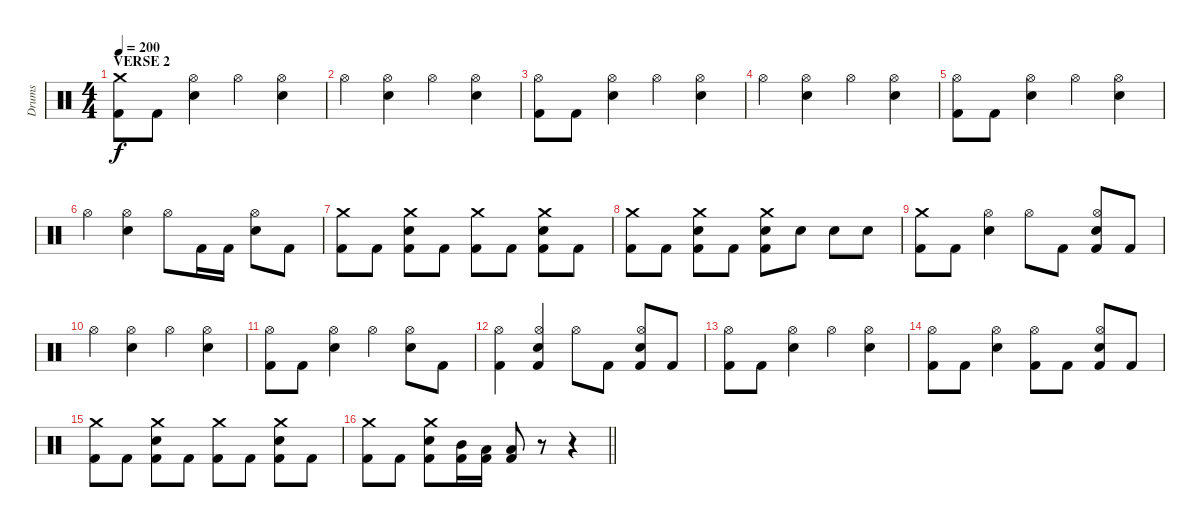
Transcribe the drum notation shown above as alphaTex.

\track ("Drums" "Drums") {instrument percussion}
\staff {score}
\articulation defaults
\ts (4 4)
\section ("" "VERSE 2")
\tempo 200
\clef neutral
\ks c
("Crash medium (hit)" "Kick (hit) 2").8{dy f} "Kick (hit) 2".8 ("Hi-Hat (open)" "Electric Snare (hit)").4 "Hi-Hat (open)".4 ("Hi-Hat (open)" "Electric Snare (hit)").4 |
"Hi-Hat (open)".4 ("Hi-Hat (open)" "Electric Snare (hit)").4 "Hi-Hat (open)".4 ("Hi-Hat (open)" "Electric Snare (hit)").4 |
("Hi-Hat (open)" "Kick (hit) 2").8 "Kick (hit) 2".8 ("Hi-Hat (open)" "Electric Snare (hit)").4 "Hi-Hat (open)".4 ("Hi-Hat (open)" "Electric Snare (hit)").4 |
"Hi-Hat (open)".4 ("Hi-Hat (open)" "Electric Snare (hit)").4 "Hi-Hat (open)".4 ("Hi-Hat (open)" "Electric Snare (hit)").4 |
("Hi-Hat (open)" "Kick (hit) 2").8 "Kick (hit) 2".8 ("Hi-Hat (open)" "Electric Snare (hit)").4 "Hi-Hat (open)".4 ("Hi-Hat (open)" "Electric Snare (hit)").4 |
"Hi-Hat (open)".4 ("Hi-Hat (open)" "Electric Snare (hit)").4 "Hi-Hat (open)".8 "Kick (hit) 2".16 "Kick (hit) 2".16 ("Hi-Hat (open)" "Electric Snare (hit)").8 "Kick (hit) 2".8 |
("Crash medium (hit)" "Kick (hit) 2").8 "Kick (hit) 2".8 ("Crash medium (hit)" "Electric Snare (hit)" "Kick (hit) 2").8 "Kick (hit) 2".8 ("Crash medium (hit)" "Kick (hit) 2").8 "Kick (hit) 2".8 ("Crash medium (hit)" "Electric Snare (hit)" "Kick (hit) 2").8 "Kick (hit) 2".8 |
("Crash medium (hit)" "Kick (hit) 2").8 "Kick (hit) 2".8 ("Crash medium (hit)" "Electric Snare (hit)" "Kick (hit) 2").8 "Kick (hit) 2".8 ("Crash medium (hit)" "Electric Snare (hit)" "Kick (hit) 2").8 "Electric Snare (hit)".8 "Electric Snare (hit)".8 "Electric Snare (hit)".8 |
("Crash medium (hit)" "Kick (hit) 2").8 "Kick (hit) 2".8 ("Hi-Hat (open)" "Electric Snare (hit)").4 "Hi-Hat (open)".8 "Kick (hit) 2".8 ("Hi-Hat (open)" "Electric Snare (hit)" "Kick (hit) 2").8 "Kick (hit) 2".8 |
"Hi-Hat (open)".4 ("Hi-Hat (open)" "Electric Snare (hit)").4 "Hi-Hat (open)".4 ("Hi-Hat (open)" "Electric Snare (hit)").4 |
("Hi-Hat (open)" "Kick (hit) 2").8 "Kick (hit) 2".8 ("Hi-Hat (open)" "Electric Snare (hit)").4 "Hi-Hat (open)".4 ("Hi-Hat (open)" "Electric Snare (hit)").8 "Kick (hit) 2".8 |
("Hi-Hat (open)" "Kick (hit) 2").4 ("Hi-Hat (open)" "Electric Snare (hit)" "Kick (hit) 2").4 "Hi-Hat (open)".8 "Kick (hit) 2".8 ("Hi-Hat (open)" "Electric Snare (hit)" "Kick (hit) 2").8 "Kick (hit) 2".8 |
("Hi-Hat (open)" "Kick (hit) 2").8 "Kick (hit) 2".8 ("Hi-Hat (open)" "Electric Snare (hit)").4 "Hi-Hat (open)".4 ("Hi-Hat (open)" "Electric Snare (hit)").4 |
("Hi-Hat (open)" "Kick (hit) 2").8 "Kick (hit) 2".8 ("Hi-Hat (open)" "Electric Snare (hit)").4 ("Hi-Hat (open)" "Kick (hit) 2").8 "Kick (hit) 2".8 ("Hi-Hat (open)" "Electric Snare (hit)" "Kick (hit) 2").8 "Kick (hit) 2".8 |
("Crash medium (hit)" "Kick (hit) 2").8 "Kick (hit) 2".8 ("Crash medium (hit)" "Electric Snare (hit)" "Kick (hit) 2").8 "Kick (hit) 2".8 ("Crash medium (hit)" "Kick (hit) 2").8 "Kick (hit) 2".8 ("Crash medium (hit)" "Electric Snare (hit)" "Kick (hit) 2").8 "Kick (hit) 2".8 |
\barLineRight lightlight
("Crash medium (hit)" "Kick (hit) 2").8 "Kick (hit) 2".8 ("Crash medium (hit)" "Electric Snare (hit)" "Kick (hit) 2").8 ("Mid Tom (hit)" "Kick (hit) 2").16 ("Low Tom (hit)" "Kick (hit) 2").16 ("Low Floor Tom (hit)" "Kick (hit) 2").8 r.8 r.4
